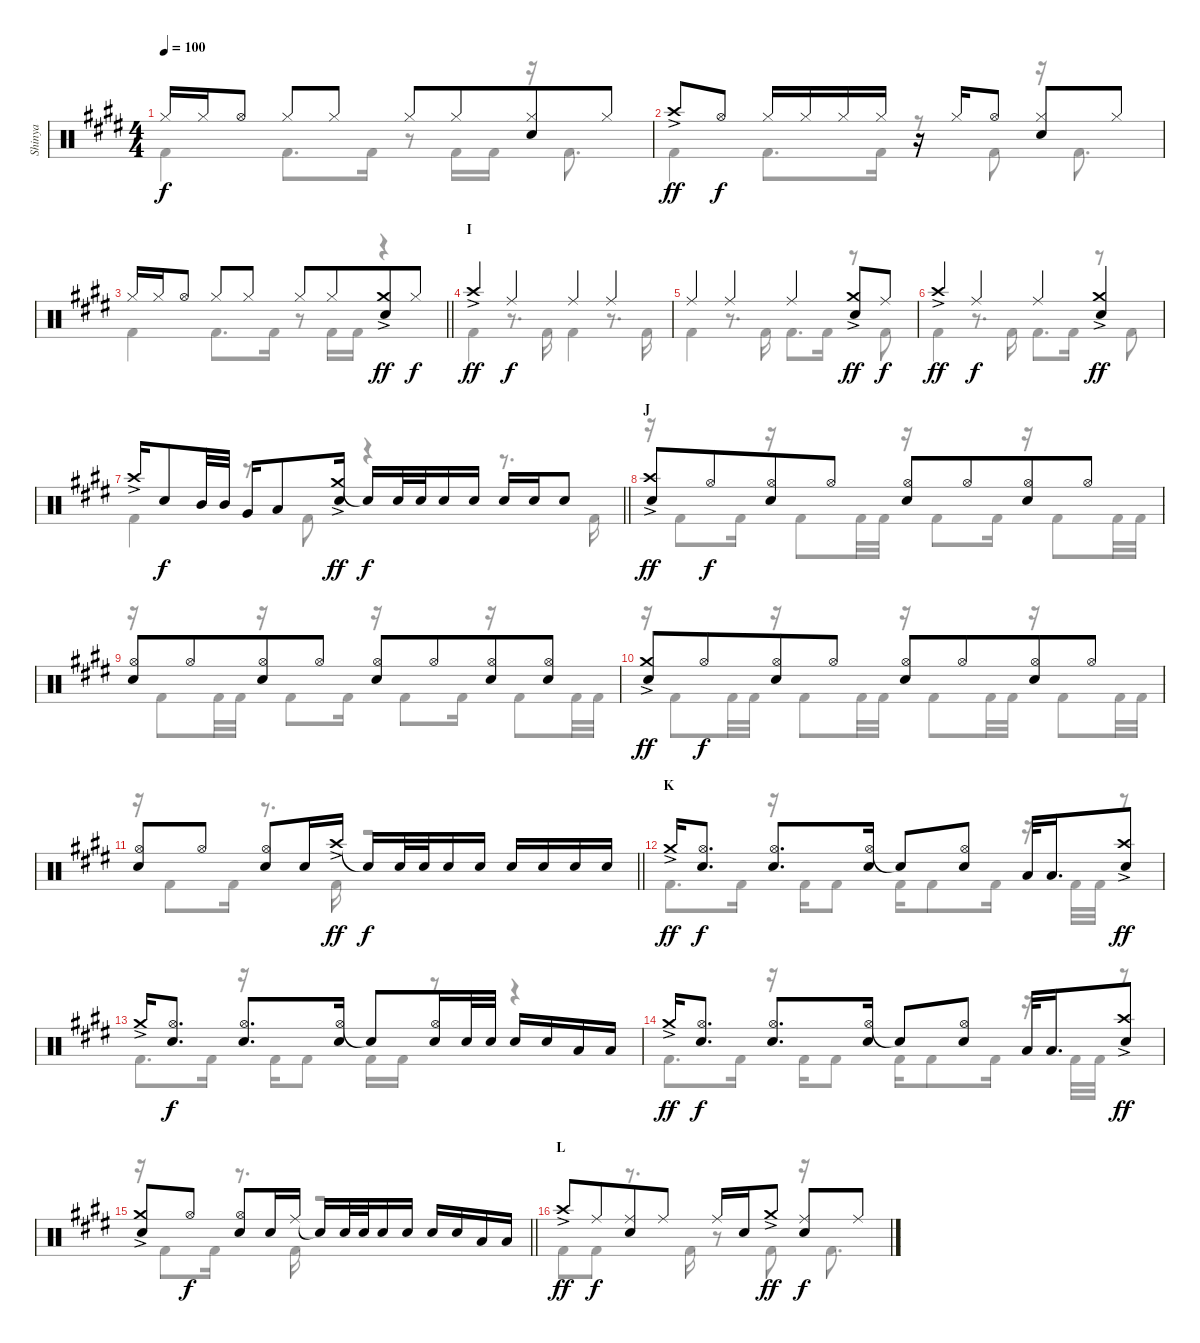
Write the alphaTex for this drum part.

\track ("Shinya" "Shinya") {instrument percussion}
\staff {score}
\articulation defaults
\voice
\ts (4 4)
\tempo 100
\clef neutral
\ks c#minor "Hi-Hat (closed)".16{dy f} "Hi-Hat (closed)".16 "Hi-Hat (open)".8 "Hi-Hat (closed)".8 "Hi-Hat (closed)".8 "Hi-Hat (closed)".8 "Hi-Hat (closed)".8{beam merge}
("Hi-Hat (closed)" "Snare (hit) 2").8 "Hi-Hat (closed)".8 |
"Crash high (hit)"{ac}.8{dy ff} "Hi-Hat (open)".8{dy f} "Hi-Hat (closed)".16 "Hi-Hat (closed)".16 "Hi-Hat (closed)".16 "Hi-Hat (closed)".16 r.16 "Hi-Hat (closed)".16 "Hi-Hat (open)".8 ("Hi-Hat (closed)" "Snare (hit) 2").8 "Hi-Hat (closed)".8 |
\barLineRight lightlight "Hi-Hat (closed)".16 "Hi-Hat (closed)".16 "Hi-Hat (open)".8 "Hi-Hat (closed)".8 "Hi-Hat (closed)".8 "Hi-Hat (closed)".8 "Hi-Hat (closed)".8{beam merge}
("Crash medium (hit)"{ac} "Snare (hit) 2").8{dy ff} "Hi-Hat (closed)".8{dy f} |
\section ("" "I")
"Crash high (hit)"{ac}.4{dy ff} "Ride (middle)".4{dy f} "Ride (middle)".4 "Ride (middle)".4 |
"Ride (middle)".4 "Ride (middle)".4 "Ride (middle)".4 ("Crash medium (hit)"{ac} "Snare (hit) 2").8{dy ff} "Ride (middle)".8{dy f} |
"Crash high (hit)"{ac}.4{dy ff} "Ride (middle)".4{dy f} "Ride (middle)".4 ("Crash medium (hit)"{ac} "Snare (hit) 2").4{dy ff} |
\barLineRight lightlight "Crash high (hit)"{ac}.16 "Snare (hit) 2".8{dy f} "Mid Tom (hit)".32 "Mid Tom (hit)".32 "Very Low Tom (hit)".16 "Low Tom (hit)".8
("Crash medium (hit)"{ac} "Snare (hit) 2").16{dy ff} "Snare (hit)"{t}.16{dy f} "Snare (hit) 2".32 "Snare (hit) 2".32 "Snare (hit) 2".16 "Snare (hit) 2".16 "Snare (hit) 2".16 "Snare (hit) 2".16 "Snare (hit) 2".8 |
\section ("" "J")
("Crash high (hit)"{ac} "Snare (hit) 2").8{dy ff} "Hi-Hat (open)".8{dy f beam merge} ("Hi-Hat (open)" "Snare (hit) 2").8 "Hi-Hat (open)".8 ("Hi-Hat (open)" "Snare (hit) 2").8 "Hi-Hat (open)".8{beam merge} ("Hi-Hat (open)" "Snare (hit) 2").8 "Hi-Hat (open)".8 |
("Hi-Hat (open)" "Snare (hit) 2").8 "Hi-Hat (open)".8{beam merge} ("Hi-Hat (open)" "Snare (hit) 2").8 "Hi-Hat (open)".8 ("Hi-Hat (open)" "Snare (hit) 2").8 "Hi-Hat (open)".8{beam merge} ("Hi-Hat (open)" "Snare (hit) 2").8 ("Hi-Hat (open)" "Snare (hit) 2").8 |
("Crash medium (hit)"{ac} "Snare (hit) 2").8{dy ff} "Hi-Hat (open)".8{dy f beam merge} ("Hi-Hat (open)" "Snare (hit) 2").8 "Hi-Hat (open)".8 ("Hi-Hat (open)" "Snare (hit) 2").8 "Hi-Hat (open)".8{beam merge} ("Hi-Hat (open)" "Snare (hit) 2").8 "Hi-Hat (open)".8 |
\barLineRight lightlight
("Hi-Hat (open)" "Snare (hit) 2").8 "Hi-Hat (open)".8 ("Hi-Hat (open)" "Snare (hit) 2").8 "Snare (hit) 2".16 "Crash high (hit)"{ac}.16{dy ff} "Snare (hit)"{t}.16{dy f} "Snare (hit) 2".32 "Snare (hit) 2".32{beam splitsecondary} "Snare (hit) 2".16 "Snare (hit) 2".16 "Snare (hit) 2".16 "Snare (hit) 2".16 "Snare (hit) 2".16 "Snare (hit) 2".16 |
\section ("" "K")
"Crash medium (hit)"{ac}.16{dy ff} ("Hi-Hat (open)" "Snare (hit) 2").8{d dy f} ("Hi-Hat (open)" "Snare (hit) 2").8{d} ("Hi-Hat (open)" "Snare (hit) 2").16 "Snare (hit)"{t}.8 ("Hi-Hat (open)" "Snare (hit) 2").8 "Low Tom (hit)".32 "Low Tom (hit)".16{d} ("Crash high (hit)"{ac} "Snare (hit) 2").8{dy ff} |
"Crash medium (hit)"{ac}.16 ("Hi-Hat (open)" "Snare (hit) 2").8{d dy f} ("Hi-Hat (open)" "Snare (hit) 2").8{d} ("Hi-Hat (open)" "Snare (hit) 2").16 "Snare (hit)"{t}.8 ("Hi-Hat (open)" "Snare (hit) 2").16 "Snare (hit) 2".32 "Snare (hit) 2".32 "Snare (hit) 2".16 "Snare (hit) 2".16 "Low Tom (hit)".16 "Low Tom (hit)".16 |
"Crash medium (hit)"{ac}.16{dy ff} ("Hi-Hat (open)" "Snare (hit) 2").8{d dy f} ("Hi-Hat (open)" "Snare (hit) 2").8{d} ("Hi-Hat (open)" "Snare (hit) 2").16 "Snare (hit)"{t}.8 ("Hi-Hat (open)" "Snare (hit) 2").8 "Low Tom (hit)".32 "Low Tom (hit)".16{d} ("Crash high (hit)"{ac} "Snare (hit) 2").8{dy ff} |
\barLineRight lightlight
("Crash medium (hit)"{ac} "Snare (hit) 2").8 "Hi-Hat (open)".8{dy f} ("Hi-Hat (open)" "Snare (hit) 2").8 "Snare (hit) 2".16 "Ride (middle)".16 "Snare (hit)"{t}.16 "Snare (hit) 2".32 "Snare (hit) 2".32{beam splitsecondary} "Snare (hit) 2".16 "Snare (hit) 2".16 "Snare (hit) 2".16 "Snare (hit) 2".16 "Low Tom (hit)".16 "Low Tom (hit)".16 |
\section ("" "L")
"Crash high (hit)"{ac}.8{dy ff} "Ride (middle)".8{dy f beam merge} ("Ride (middle)" "Snare (hit) 2").8 "Ride (middle)".8 "Ride (middle)".16 "Snare (hit) 2".16 "Crash medium (hit)"{ac}.8{dy ff} ("Ride (middle)" "Snare (hit) 2").8{dy f} "Ride (middle)".8
\voice
\clef neutral
\ottava regular
\simile none
\ks c#minor "Kick (hit) 2".4{dy f} "Kick (hit) 2".8{d} "Kick (hit) 2".16
r.8 "Kick (hit) 2".16 "Kick (hit) 2".16 r.16 "Kick (hit) 2".8{d} |
"Kick (hit) 2".4 "Kick (hit) 2".8{d} "Kick (hit) 2".16 r.8 "Kick (hit) 2".8 r.16 "Kick (hit) 2".8{d} |
\barLineRight lightlight "Kick (hit) 2".4 "Kick (hit) 2".8{d} "Kick (hit) 2".16
r.8 "Kick (hit) 2".16 "Kick (hit) 2".16 r.4 |
"Kick (hit) 2".4 r.8{d} "Kick (hit) 2".16 "Kick (hit) 2".4 r.8{d} "Kick (hit) 2".16 |
"Kick (hit) 2".4 r.8{d} "Kick (hit) 2".16 "Kick (hit) 2".8{d} "Kick (hit) 2".16 r.8 "Kick (hit) 2".8 |
"Kick (hit) 2".4 r.8{d} "Kick (hit) 2".16 "Kick (hit) 2".8{d} "Kick (hit) 2".16 r.8 "Kick (hit) 2".8 |
\barLineRight lightlight "Kick (hit) 2".4
r.8 "Kick (hit) 2".8 r.4 r.8{d} "Kick (hit) 2".16 |
r.16 "Kick (hit) 2".8 "Kick (hit) 2".16 r.16 "Kick (hit) 2".8 "Kick (hit) 2".32 "Kick (hit) 2".32 r.16 "Kick (hit) 2".8 "Kick (hit) 2".16 r.16 "Kick (hit) 2".8 "Kick (hit) 2".32 "Kick (hit) 2".32 |
r.16 "Kick (hit) 2".8 "Kick (hit) 2".32 "Kick (hit) 2".32 r.16 "Kick (hit) 2".8 "Kick (hit) 2".16 r.16 "Kick (hit) 2".8 "Kick (hit) 2".16 r.16 "Kick (hit) 2".8 "Kick (hit) 2".32 "Kick (hit) 2".32 |
r.16 "Kick (hit) 2".8 "Kick (hit) 2".32 "Kick (hit) 2".32 r.16 "Kick (hit) 2".8 "Kick (hit) 2".32 "Kick (hit) 2".32 r.16 "Kick (hit) 2".8 "Kick (hit) 2".32 "Kick (hit) 2".32 r.16 "Kick (hit) 2".8 "Kick (hit) 2".32 "Kick (hit) 2".32 |
\barLineRight lightlight
r.16 "Kick (hit) 2".8 "Kick (hit) 2".16 r.8{d} "Kick (hit) 2".16 r.2 |
"Kick (hit) 2".8{d} "Kick (hit) 2".16 r.16 "Kick (hit) 2".16 "Kick (hit) 2".8 "Kick (hit) 2".16 "Kick (hit) 2".8 "Kick (hit) 2".16 r.16 "Kick (hit) 2".32 "Kick (hit) 2".32 r.8 |
"Kick (hit) 2".8{d} "Kick (hit) 2".16 r.16 "Kick (hit) 2".16 "Kick (hit) 2".8 "Kick (hit) 2".16 "Kick (hit) 2".16 r.8 r.4 |
"Kick (hit) 2".8{d} "Kick (hit) 2".16 r.16 "Kick (hit) 2".16 "Kick (hit) 2".8 "Kick (hit) 2".16 "Kick (hit) 2".8 "Kick (hit) 2".16 r.16 "Kick (hit) 2".32 "Kick (hit) 2".32 r.8 |
\barLineRight lightlight
r.16 "Kick (hit) 2".8 "Kick (hit) 2".16 r.8{d} "Kick (hit) 2".16 r.2 |
"Kick (hit) 2".8 "Kick (hit) 2".8 r.8{d} "Kick (hit) 2".16 r.8 "Kick (hit) 2".8 r.16 "Kick (hit) 2".8{d}
